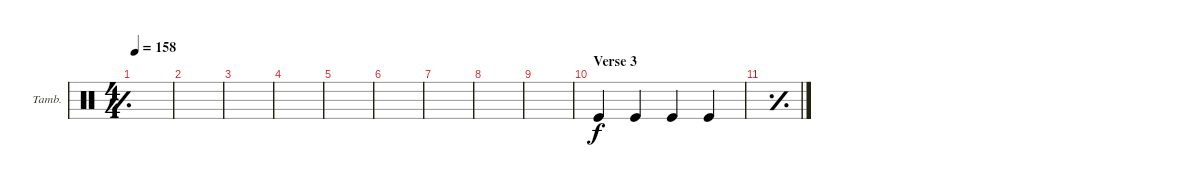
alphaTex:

\defaultSystemsLayout 4
\bracketExtendMode groupsimilarinstruments
\firstSystemTrackNameOrientation horizontal
\otherSystemsTrackNameOrientation horizontal
\track ("Tambourine" "Tamb.") {instrument percussion}
\staff {score}
\articulation defaults
\ts (4 4)
\tempo 158
\clef neutral
\simile simple
\ks c
|
|
|
|
|
|
|
|
|
\section ("" "Verse 3")
\simile none "Kick (hit)".4 "Kick (hit)".4 "Kick (hit)".4 "Kick (hit)".4
|
\simile simple
